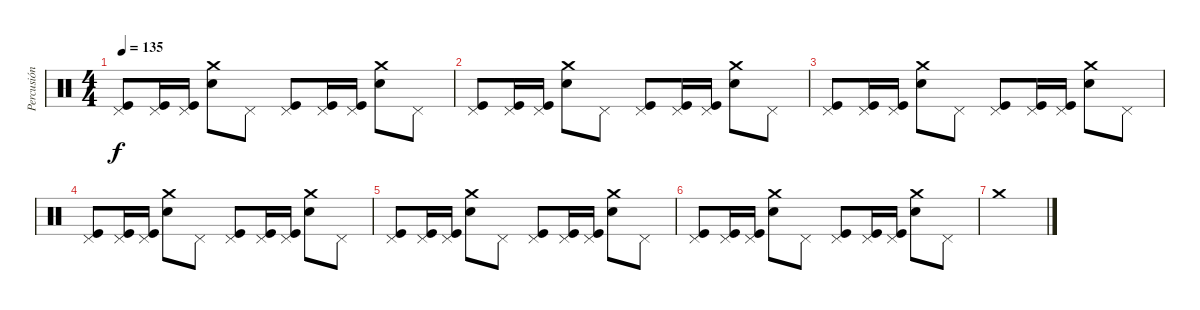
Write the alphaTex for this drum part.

\track ("Percusión" "Percusión") {instrument percussion}
\staff {score}
\articulation defaults
\ts (4 4)
\tempo 135
\clef neutral
\ks c
("Pedal Hi-Hat (hit)" "Kick (hit)").8{dy f} ("Pedal Hi-Hat (hit)" "Kick (hit)").16 ("Pedal Hi-Hat (hit)" "Kick (hit)").16 ("Crash medium (hit)" "Electric Snare (hit)").8 "Pedal Hi-Hat (hit)".8 ("Pedal Hi-Hat (hit)" "Kick (hit)").8 ("Pedal Hi-Hat (hit)" "Kick (hit)").16 ("Pedal Hi-Hat (hit)" "Kick (hit)").16 ("Crash medium (hit)" "Electric Snare (hit)").8 "Pedal Hi-Hat (hit)".8 |
("Pedal Hi-Hat (hit)" "Kick (hit)").8 ("Pedal Hi-Hat (hit)" "Kick (hit)").16 ("Pedal Hi-Hat (hit)" "Kick (hit)").16 ("Crash medium (hit)" "Electric Snare (hit)").8 "Pedal Hi-Hat (hit)".8 ("Pedal Hi-Hat (hit)" "Kick (hit)").8 ("Pedal Hi-Hat (hit)" "Kick (hit)").16 ("Pedal Hi-Hat (hit)" "Kick (hit)").16 ("Crash medium (hit)" "Electric Snare (hit)").8 "Pedal Hi-Hat (hit)".8 |
("Pedal Hi-Hat (hit)" "Kick (hit)").8 ("Pedal Hi-Hat (hit)" "Kick (hit)").16 ("Pedal Hi-Hat (hit)" "Kick (hit)").16 ("Crash medium (hit)" "Electric Snare (hit)").8 "Pedal Hi-Hat (hit)".8 ("Pedal Hi-Hat (hit)" "Kick (hit)").8 ("Pedal Hi-Hat (hit)" "Kick (hit)").16 ("Pedal Hi-Hat (hit)" "Kick (hit)").16 ("Crash medium (hit)" "Electric Snare (hit)").8 "Pedal Hi-Hat (hit)".8 |
("Pedal Hi-Hat (hit)" "Kick (hit)").8 ("Pedal Hi-Hat (hit)" "Kick (hit)").16 ("Pedal Hi-Hat (hit)" "Kick (hit)").16 ("Crash medium (hit)" "Electric Snare (hit)").8 "Pedal Hi-Hat (hit)".8 ("Pedal Hi-Hat (hit)" "Kick (hit)").8 ("Pedal Hi-Hat (hit)" "Kick (hit)").16 ("Pedal Hi-Hat (hit)" "Kick (hit)").16 ("Crash medium (hit)" "Electric Snare (hit)").8 "Pedal Hi-Hat (hit)".8 |
("Pedal Hi-Hat (hit)" "Kick (hit)").8 ("Pedal Hi-Hat (hit)" "Kick (hit)").16 ("Pedal Hi-Hat (hit)" "Kick (hit)").16 ("Crash medium (hit)" "Electric Snare (hit)").8 "Pedal Hi-Hat (hit)".8 ("Pedal Hi-Hat (hit)" "Kick (hit)").8 ("Pedal Hi-Hat (hit)" "Kick (hit)").16 ("Pedal Hi-Hat (hit)" "Kick (hit)").16 ("Crash medium (hit)" "Electric Snare (hit)").8 "Pedal Hi-Hat (hit)".8 |
("Pedal Hi-Hat (hit)" "Kick (hit)").8 ("Pedal Hi-Hat (hit)" "Kick (hit)").16 ("Pedal Hi-Hat (hit)" "Kick (hit)").16 ("Crash medium (hit)" "Electric Snare (hit)").8 "Pedal Hi-Hat (hit)".8 ("Pedal Hi-Hat (hit)" "Kick (hit)").8 ("Pedal Hi-Hat (hit)" "Kick (hit)").16 ("Pedal Hi-Hat (hit)" "Kick (hit)").16 ("Crash medium (hit)" "Electric Snare (hit)").8 "Pedal Hi-Hat (hit)".8 |
"Crash medium (hit)".1
